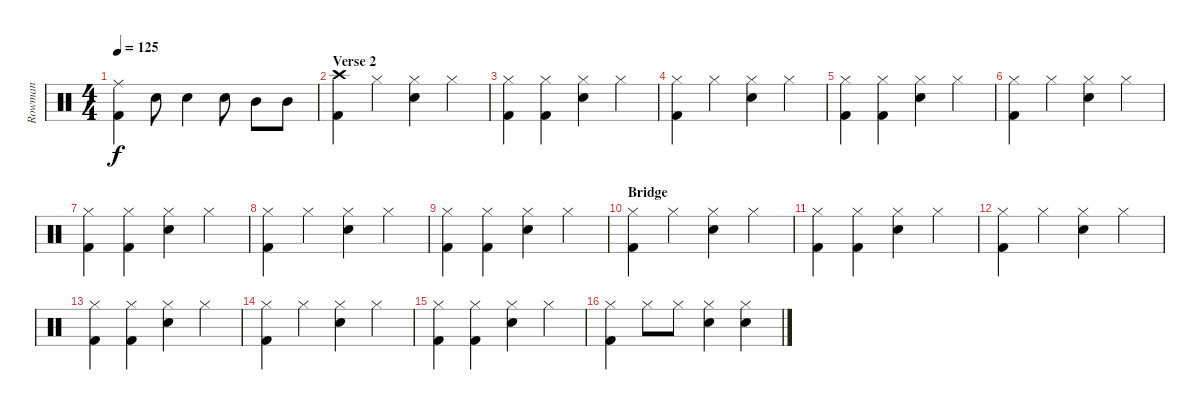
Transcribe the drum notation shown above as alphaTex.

\track ("Rowman" "Rowman") {instrument percussion}
\staff {score}
\articulation defaults
\ts (4 4)
\tempo 125
\clef neutral
\ks c
("Kick (hit) 2" "Ride (middle)").4{dy f} "Electric Snare (hit)".8 "Electric Snare (hit)".4 "Electric Snare (hit)".8 "Mid Tom (hit)".8 "Mid Tom (hit)".8 |
\section ("" "Verse 2")
("Kick (hit) 2" "Crash high (hit)").4 "Hi-Hat (closed)".4 ("Electric Snare (hit)" "Hi-Hat (closed)").4 "Hi-Hat (closed)".4 |
("Kick (hit) 2" "Hi-Hat (closed)").4 ("Kick (hit) 2" "Hi-Hat (closed)").4 ("Electric Snare (hit)" "Hi-Hat (closed)").4 "Hi-Hat (closed)".4 |
("Kick (hit) 2" "Hi-Hat (closed)").4 "Hi-Hat (closed)".4 ("Electric Snare (hit)" "Hi-Hat (closed)").4 "Hi-Hat (closed)".4 |
("Kick (hit) 2" "Hi-Hat (closed)").4 ("Kick (hit) 2" "Hi-Hat (closed)").4 ("Electric Snare (hit)" "Hi-Hat (closed)").4 "Hi-Hat (closed)".4 |
("Kick (hit) 2" "Hi-Hat (closed)").4 "Hi-Hat (closed)".4 ("Electric Snare (hit)" "Hi-Hat (closed)").4 "Hi-Hat (closed)".4 |
("Kick (hit) 2" "Hi-Hat (closed)").4 ("Kick (hit) 2" "Hi-Hat (closed)").4 ("Electric Snare (hit)" "Hi-Hat (closed)").4 "Hi-Hat (closed)".4 |
("Kick (hit) 2" "Hi-Hat (closed)").4 "Hi-Hat (closed)".4 ("Electric Snare (hit)" "Hi-Hat (closed)").4 "Hi-Hat (closed)".4 |
("Kick (hit) 2" "Hi-Hat (closed)").4 ("Kick (hit) 2" "Hi-Hat (closed)").4 ("Electric Snare (hit)" "Hi-Hat (closed)").4 "Hi-Hat (closed)".4 |
\section ("" "Bridge")
("Kick (hit) 2" "Hi-Hat (closed)").4 "Hi-Hat (closed)".4 ("Electric Snare (hit)" "Hi-Hat (closed)").4 "Hi-Hat (closed)".4 |
("Kick (hit) 2" "Hi-Hat (closed)").4 ("Kick (hit) 2" "Hi-Hat (closed)").4 ("Electric Snare (hit)" "Hi-Hat (closed)").4 "Hi-Hat (closed)".4 |
("Kick (hit) 2" "Hi-Hat (closed)").4 "Hi-Hat (closed)".4 ("Electric Snare (hit)" "Hi-Hat (closed)").4 "Hi-Hat (closed)".4 |
("Kick (hit) 2" "Hi-Hat (closed)").4 ("Kick (hit) 2" "Hi-Hat (closed)").4 ("Electric Snare (hit)" "Hi-Hat (closed)").4 "Hi-Hat (closed)".4 |
("Kick (hit) 2" "Hi-Hat (closed)").4 "Hi-Hat (closed)".4 ("Electric Snare (hit)" "Hi-Hat (closed)").4 "Hi-Hat (closed)".4 |
("Kick (hit) 2" "Hi-Hat (closed)").4 ("Kick (hit) 2" "Hi-Hat (closed)").4 ("Electric Snare (hit)" "Hi-Hat (closed)").4 "Hi-Hat (closed)".4 |
("Kick (hit) 2" "Hi-Hat (closed)").4 "Hi-Hat (closed)".8 "Hi-Hat (closed)".8 ("Electric Snare (hit)" "Hi-Hat (closed)").4 ("Electric Snare (hit)" "Hi-Hat (closed)").4
